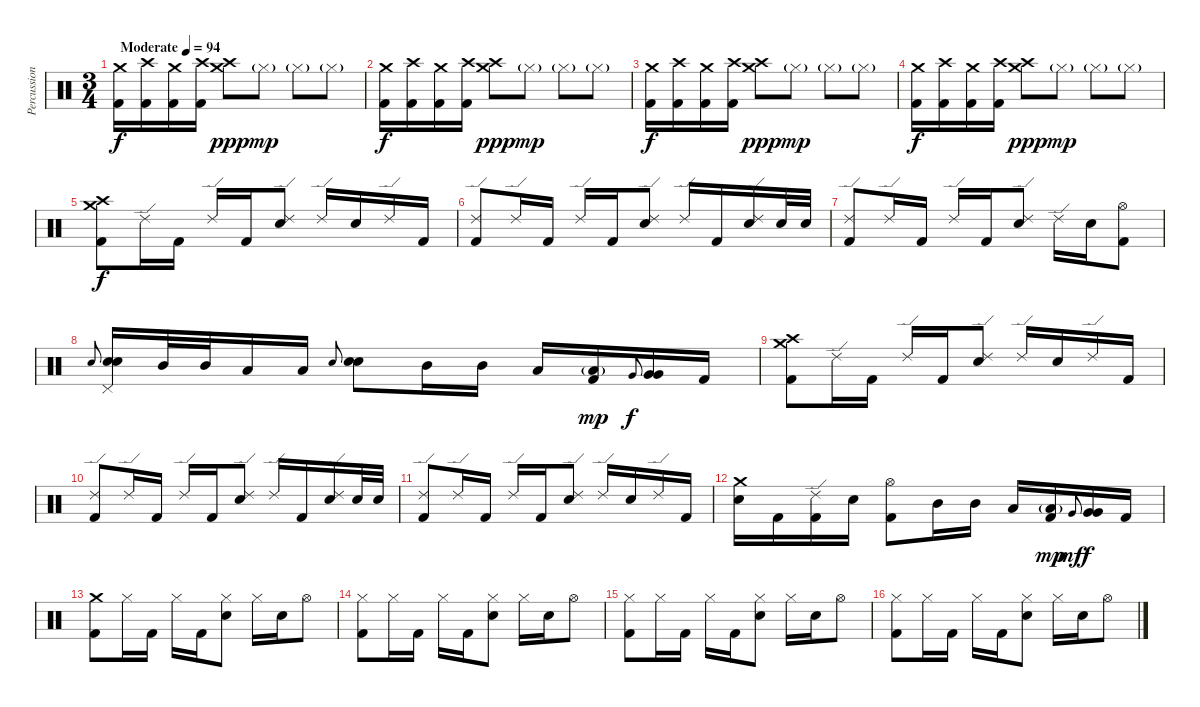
\track ("Percussion" "Percussion") {instrument percussion}
\staff {score}
\articulation defaults
\ts (3 4)
\tempo (94 "Moderate")
\clef neutral
\ks c
("Crash medium (hit)" "Kick (hit) 2").16{dy f} ("Crash high (hit)" "Kick (hit) 2").16 ("Crash medium (hit)" "Kick (hit) 2").16 ("Crash high (hit)" "Kick (hit) 2").16 ("Crash medium (hit)" "Crash high (hit)").8{dy ppp} "Hi-Hat (closed)"{g}.8{dy mp} "Hi-Hat (closed)"{g}.8 "Hi-Hat (closed)"{g}.8 |
("Crash medium (hit)" "Kick (hit) 2").16{dy f} ("Crash high (hit)" "Kick (hit) 2").16 ("Crash medium (hit)" "Kick (hit) 2").16 ("Crash high (hit)" "Kick (hit) 2").16 ("Crash medium (hit)" "Crash high (hit)").8{dy ppp} "Hi-Hat (closed)"{g}.8{dy mp} "Hi-Hat (closed)"{g}.8 "Hi-Hat (closed)"{g}.8 |
("Crash medium (hit)" "Kick (hit) 2").16{dy f} ("Crash high (hit)" "Kick (hit) 2").16 ("Crash medium (hit)" "Kick (hit) 2").16 ("Crash high (hit)" "Kick (hit) 2").16 ("Crash medium (hit)" "Crash high (hit)").8{dy ppp} "Hi-Hat (closed)"{g}.8{dy mp} "Hi-Hat (closed)"{g}.8 "Hi-Hat (closed)"{g}.8 |
("Crash medium (hit)" "Kick (hit) 2").16{dy f} ("Crash high (hit)" "Kick (hit) 2").16 ("Crash medium (hit)" "Kick (hit) 2").16 ("Crash high (hit)" "Kick (hit) 2").16 ("Crash medium (hit)" "Crash high (hit)").8{dy ppp} "Hi-Hat (closed)"{g}.8{dy mp} "Hi-Hat (closed)"{g}.8 "Hi-Hat (closed)"{g}.8 |
("Crash medium (hit)" "Crash high (hit)" "Kick (hit) 2").8{dy f} "Ride (edge) 2".16 "Kick (hit) 2".16 "Ride (edge) 2".16 "Kick (hit) 2".16 ("Ride (edge) 2" "Electric Snare (hit)").8 "Ride (edge) 2".16 "Electric Snare (hit)".16 "Ride (edge) 2".16 "Kick (hit) 2".16 |
("Ride (edge) 2" "Kick (hit) 2").8 "Ride (edge) 2".16 "Kick (hit) 2".16 "Ride (edge) 2".16 "Kick (hit) 2".16 ("Ride (edge) 2" "Electric Snare (hit)").8 "Ride (edge) 2".16 "Kick (hit) 2".16 ("Ride (edge) 2" "Electric Snare (hit)").16 "Electric Snare (hit)".32 "Electric Snare (hit)".32 |
("Ride (edge) 2" "Kick (hit) 2").8 "Ride (edge) 2".16 "Kick (hit) 2".16 "Ride (edge) 2".16 "Kick (hit) 2".16 ("Ride (edge) 2" "Electric Snare (hit)").8 "Ride (edge) 2".16 "Electric Snare (hit)".16 ("Hi-Hat (open)" "Kick (hit) 2").8 |
"Electric Snare (hit)".8{gr onbeat} ("Pedal Hi-Hat (hit)" "Electric Snare (hit)" "Electric Snare (hit)").16 "Mid Tom (hit)".32 "Mid Tom (hit)".32 "Low Tom (hit)".16 "Low Tom (hit)".16 "Electric Snare (hit)".8{gr onbeat} ("Electric Snare (hit)" "Electric Snare (hit)").8 "Mid Tom (hit)".16 "Mid Tom (hit)".16 "Low Tom (hit)".16 ("Low Tom (hit)"{g} "Kick (hit) 2").16{dy mp} "Very Low Tom (hit)".8{gr onbeat dy f} ("Very Low Tom (hit)" "Very Low Tom (hit)").16 "Kick (hit) 2".16 |
("Crash medium (hit)" "Crash high (hit)" "Kick (hit) 2").8 "Ride (edge) 2".16 "Kick (hit) 2".16 "Ride (edge) 2".16 "Kick (hit) 2".16 ("Ride (edge) 2" "Electric Snare (hit)").8 "Ride (edge) 2".16 "Electric Snare (hit)".16 "Ride (edge) 2".16 "Kick (hit) 2".16 |
("Ride (edge) 2" "Kick (hit) 2").8 "Ride (edge) 2".16 "Kick (hit) 2".16 "Ride (edge) 2".16 "Kick (hit) 2".16 ("Ride (edge) 2" "Electric Snare (hit)").8 "Ride (edge) 2".16 "Kick (hit) 2".16 ("Ride (edge) 2" "Electric Snare (hit)").16 "Electric Snare (hit)".32 "Electric Snare (hit)".32 |
("Ride (edge) 2" "Kick (hit) 2").8 "Ride (edge) 2".16 "Kick (hit) 2".16 "Ride (edge) 2".16 "Kick (hit) 2".16 ("Ride (edge) 2" "Electric Snare (hit)").8 "Ride (edge) 2".16 "Electric Snare (hit)".16 "Ride (edge) 2".16 "Kick (hit) 2".16 |
("Crash medium (hit)" "Electric Snare (hit)").16 "Kick (hit) 2".16 ("Ride (edge) 2" "Kick (hit) 2").16 "Electric Snare (hit)".16 ("Hi-Hat (open)" "Kick (hit) 2").8 "Mid Tom (hit)".16 "Mid Tom (hit)".16 "Low Tom (hit)".16 ("Low Tom (hit)"{g} "Kick (hit) 2").16{dy mp} "Very Low Tom (hit)".8{gr onbeat dy mf} ("Very Low Tom (hit)" "Very Low Tom (hit)").16{dy f} "Kick (hit) 2".16 |
("Crash medium (hit)" "Kick (hit) 2").8 "Hi-Hat (closed)".16 "Kick (hit) 2".16 "Hi-Hat (closed)".16 "Kick (hit) 2".16 ("Hi-Hat (closed)" "Electric Snare (hit)").8 "Hi-Hat (closed)".16 "Electric Snare (hit)".16 "Hi-Hat (open)".8 |
("Hi-Hat (closed)" "Kick (hit) 2").8 "Hi-Hat (closed)".16 "Kick (hit) 2".16 "Hi-Hat (closed)".16 "Kick (hit) 2".16 ("Hi-Hat (closed)" "Electric Snare (hit)").8 "Hi-Hat (closed)".16 "Electric Snare (hit)".16 "Hi-Hat (open)".8 |
("Hi-Hat (closed)" "Kick (hit) 2").8 "Hi-Hat (closed)".16 "Kick (hit) 2".16 "Hi-Hat (closed)".16 "Kick (hit) 2".16 ("Hi-Hat (closed)" "Electric Snare (hit)").8 "Hi-Hat (closed)".16 "Electric Snare (hit)".16 "Hi-Hat (open)".8 |
("Hi-Hat (closed)" "Kick (hit) 2").8 "Hi-Hat (closed)".16 "Kick (hit) 2".16 "Hi-Hat (closed)".16 "Kick (hit) 2".16 ("Hi-Hat (closed)" "Electric Snare (hit)").8 "Hi-Hat (closed)".16 "Electric Snare (hit)".16 "Hi-Hat (open)".8
